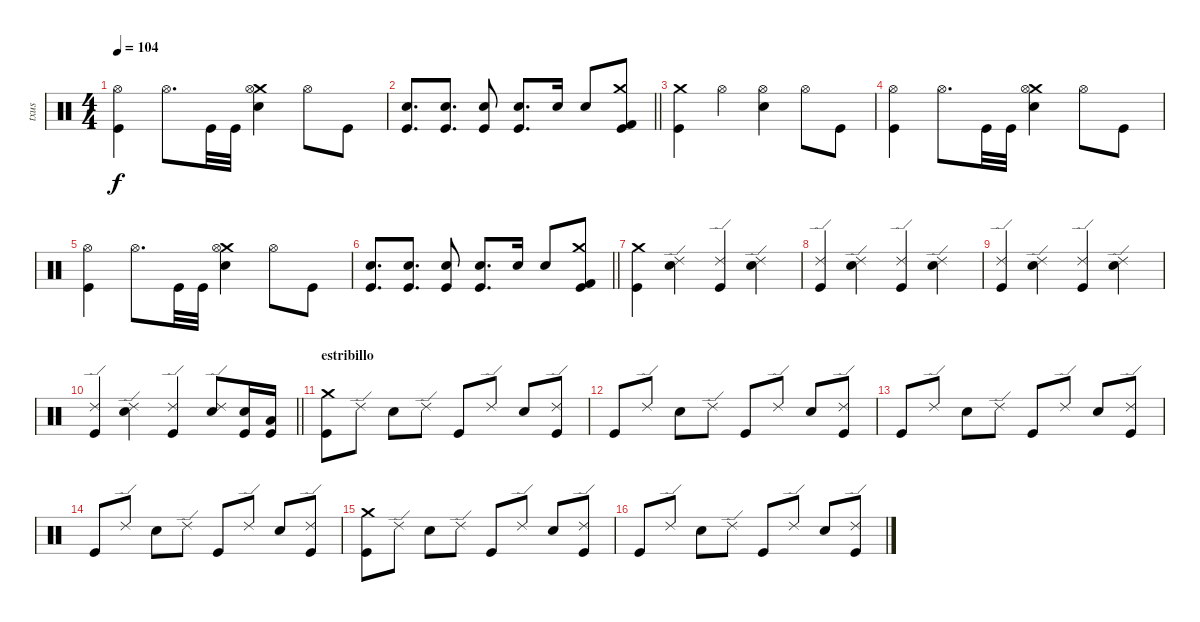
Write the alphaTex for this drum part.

\track ("txus" "txus") {instrument percussion}
\staff {score}
\articulation defaults
\ts (4 4)
\tempo 104
\clef neutral
\ks c
("Hi-Hat (open)" "Kick (hit)").4{dy f} "Hi-Hat (open)".8{d} "Kick (hit)".32 "Kick (hit)".32 ("Crash medium (hit)" "Hi-Hat (open)" "Electric Snare (hit)").4 "Hi-Hat (open)".8 "Kick (hit)".8 |
\barLineRight lightlight
("Snare (hit) 2" "Kick (hit)").8{d} ("Snare (hit) 2" "Kick (hit)").8{d} ("Snare (hit) 2" "Kick (hit)").8 ("Snare (hit) 2" "Kick (hit)").8{d} "Snare (hit) 2".16 "Snare (hit) 2".8 ("Crash medium (hit)" "Kick (hit) 2" "Kick (hit)").8 |
("Crash medium (hit)" "Kick (hit)").4 "Hi-Hat (open)".4 ("Hi-Hat (open)" "Electric Snare (hit)").4 "Hi-Hat (open)".8 "Kick (hit)".8 |
("Hi-Hat (open)" "Kick (hit)").4 "Hi-Hat (open)".8{d} "Kick (hit)".32 "Kick (hit)".32 ("Crash medium (hit)" "Hi-Hat (open)" "Electric Snare (hit)").4 "Hi-Hat (open)".8 "Kick (hit)".8 |
("Hi-Hat (open)" "Kick (hit)").4 "Hi-Hat (open)".8{d} "Kick (hit)".32 "Kick (hit)".32 ("Crash medium (hit)" "Hi-Hat (open)" "Electric Snare (hit)").4 "Hi-Hat (open)".8 "Kick (hit)".8 |
\barLineRight lightlight
("Snare (hit) 2" "Kick (hit)").8{d} ("Snare (hit) 2" "Kick (hit)").8{d} ("Snare (hit) 2" "Kick (hit)").8 ("Snare (hit) 2" "Kick (hit)").8{d} "Snare (hit) 2".16 "Snare (hit) 2".8 ("Crash medium (hit)" "Kick (hit) 2" "Kick (hit)").8 |
("Crash medium (hit)" "Kick (hit)").4 ("Ride (edge) 2" "Electric Snare (hit)").4 ("Ride (edge) 2" "Kick (hit)").4 ("Ride (edge) 2" "Electric Snare (hit)").4 |
("Ride (edge) 2" "Kick (hit)").4 ("Ride (edge) 2" "Electric Snare (hit)").4 ("Ride (edge) 2" "Kick (hit)").4 ("Ride (edge) 2" "Electric Snare (hit)").4 |
("Ride (edge) 2" "Kick (hit)").4 ("Ride (edge) 2" "Electric Snare (hit)").4 ("Ride (edge) 2" "Kick (hit)").4 ("Ride (edge) 2" "Electric Snare (hit)").4 |
\barLineRight lightlight
("Ride (edge) 2" "Kick (hit)").4 ("Ride (edge) 2" "Electric Snare (hit)").4 ("Ride (edge) 2" "Kick (hit)").4 ("Ride (edge) 2" "Electric Snare (hit)").8 ("Electric Snare (hit)" "Kick (hit)").16 ("Low Tom (hit)" "Kick (hit)").16 |
\section ("" "estribillo")
("Crash medium (hit)" "Kick (hit)").8 "Ride (edge) 2".8 "Electric Snare (hit)".8 "Ride (edge) 2".8 "Kick (hit)".8 "Ride (edge) 2".8 "Electric Snare (hit)".8 ("Ride (edge) 2" "Kick (hit)").8 |
"Kick (hit)".8 "Ride (edge) 2".8 "Electric Snare (hit)".8 "Ride (edge) 2".8 "Kick (hit)".8 "Ride (edge) 2".8 "Electric Snare (hit)".8 ("Ride (edge) 2" "Kick (hit)").8 |
"Kick (hit)".8 "Ride (edge) 2".8 "Electric Snare (hit)".8 "Ride (edge) 2".8 "Kick (hit)".8 "Ride (edge) 2".8 "Electric Snare (hit)".8 ("Ride (edge) 2" "Kick (hit)").8 |
"Kick (hit)".8 "Ride (edge) 2".8 "Electric Snare (hit)".8 "Ride (edge) 2".8 "Kick (hit)".8 "Ride (edge) 2".8 "Electric Snare (hit)".8 ("Ride (edge) 2" "Kick (hit)").8 |
("Crash medium (hit)" "Kick (hit)").8 "Ride (edge) 2".8 "Electric Snare (hit)".8 "Ride (edge) 2".8 "Kick (hit)".8 "Ride (edge) 2".8 "Electric Snare (hit)".8 ("Ride (edge) 2" "Kick (hit)").8 |
"Kick (hit)".8 "Ride (edge) 2".8 "Electric Snare (hit)".8 "Ride (edge) 2".8 "Kick (hit)".8 "Ride (edge) 2".8 "Electric Snare (hit)".8 ("Ride (edge) 2" "Kick (hit)").8
